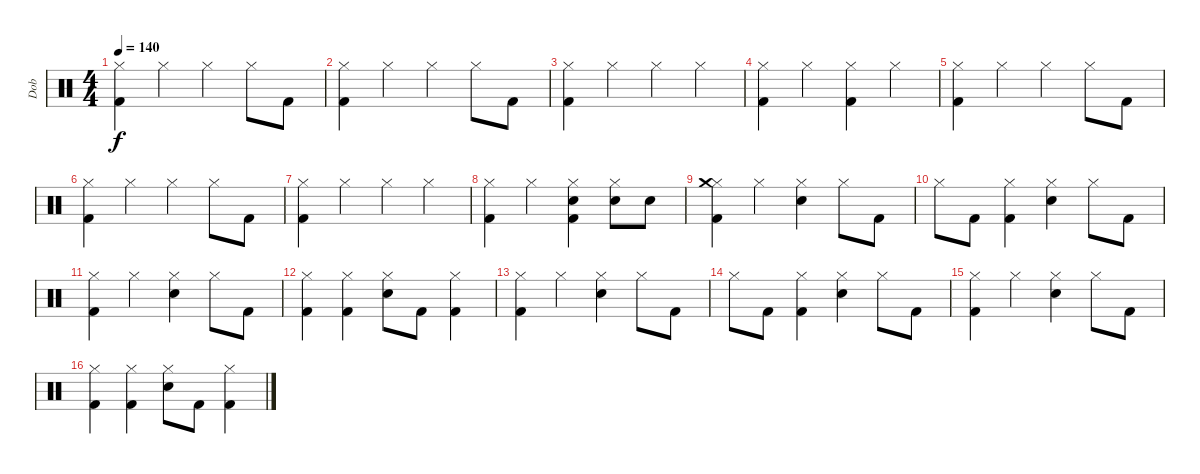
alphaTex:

\track ("Dob" "Dob") {instrument percussion}
\staff {score}
\articulation defaults
\ts (4 4)
\tempo 140
\clef neutral
\ks c
("Hi-Hat (closed)" "Kick (hit) 2").4{dy f} "Hi-Hat (closed)".4 "Hi-Hat (closed)".4 "Hi-Hat (closed)".8 "Kick (hit) 2".8 |
("Hi-Hat (closed)" "Kick (hit) 2").4 "Hi-Hat (closed)".4 "Hi-Hat (closed)".4 "Hi-Hat (closed)".8 "Kick (hit) 2".8 |
("Hi-Hat (closed)" "Kick (hit) 2").4 "Hi-Hat (closed)".4 "Hi-Hat (closed)".4 "Hi-Hat (closed)".4 |
("Hi-Hat (closed)" "Kick (hit) 2").4 "Hi-Hat (closed)".4 ("Hi-Hat (closed)" "Kick (hit) 2").4 "Hi-Hat (closed)".4 |
("Hi-Hat (closed)" "Kick (hit) 2").4 "Hi-Hat (closed)".4 "Hi-Hat (closed)".4 "Hi-Hat (closed)".8 "Kick (hit) 2".8 |
("Hi-Hat (closed)" "Kick (hit) 2").4 "Hi-Hat (closed)".4 "Hi-Hat (closed)".4 "Hi-Hat (closed)".8 "Kick (hit) 2".8 |
("Hi-Hat (closed)" "Kick (hit) 2").4 "Hi-Hat (closed)".4 "Hi-Hat (closed)".4 "Hi-Hat (closed)".4 |
("Hi-Hat (closed)" "Kick (hit) 2").4 "Hi-Hat (closed)".4 ("Hi-Hat (closed)" "Kick (hit) 2" "Electric Snare (hit)").4 ("Hi-Hat (closed)" "Electric Snare (hit)").8 "Electric Snare (hit)".8 |
("Hi-Hat (closed)" "Kick (hit) 2" "Crash medium (hit)").4 "Hi-Hat (closed)".4 ("Hi-Hat (closed)" "Electric Snare (hit)").4 "Hi-Hat (closed)".8 "Kick (hit) 2".8 |
"Hi-Hat (closed)".8 "Kick (hit) 2".8 ("Hi-Hat (closed)" "Kick (hit) 2").4 ("Hi-Hat (closed)" "Electric Snare (hit)").4 "Hi-Hat (closed)".8 "Kick (hit) 2".8 |
("Hi-Hat (closed)" "Kick (hit) 2").4 "Hi-Hat (closed)".4 ("Hi-Hat (closed)" "Electric Snare (hit)").4 "Hi-Hat (closed)".8 "Kick (hit) 2".8 |
("Hi-Hat (closed)" "Kick (hit) 2").4 ("Hi-Hat (closed)" "Kick (hit) 2").4 ("Hi-Hat (closed)" "Electric Snare (hit)").8 "Kick (hit) 2".8 ("Hi-Hat (closed)" "Kick (hit) 2").4 |
("Hi-Hat (closed)" "Kick (hit) 2").4 "Hi-Hat (closed)".4 ("Hi-Hat (closed)" "Electric Snare (hit)").4 "Hi-Hat (closed)".8 "Kick (hit) 2".8 |
"Hi-Hat (closed)".8 "Kick (hit) 2".8 ("Hi-Hat (closed)" "Kick (hit) 2").4 ("Hi-Hat (closed)" "Electric Snare (hit)").4 "Hi-Hat (closed)".8 "Kick (hit) 2".8 |
("Hi-Hat (closed)" "Kick (hit) 2").4 "Hi-Hat (closed)".4 ("Hi-Hat (closed)" "Electric Snare (hit)").4 "Hi-Hat (closed)".8 "Kick (hit) 2".8 |
("Hi-Hat (closed)" "Kick (hit) 2").4 ("Hi-Hat (closed)" "Kick (hit) 2").4 ("Hi-Hat (closed)" "Electric Snare (hit)").8 "Kick (hit) 2".8 ("Hi-Hat (closed)" "Kick (hit) 2").4
